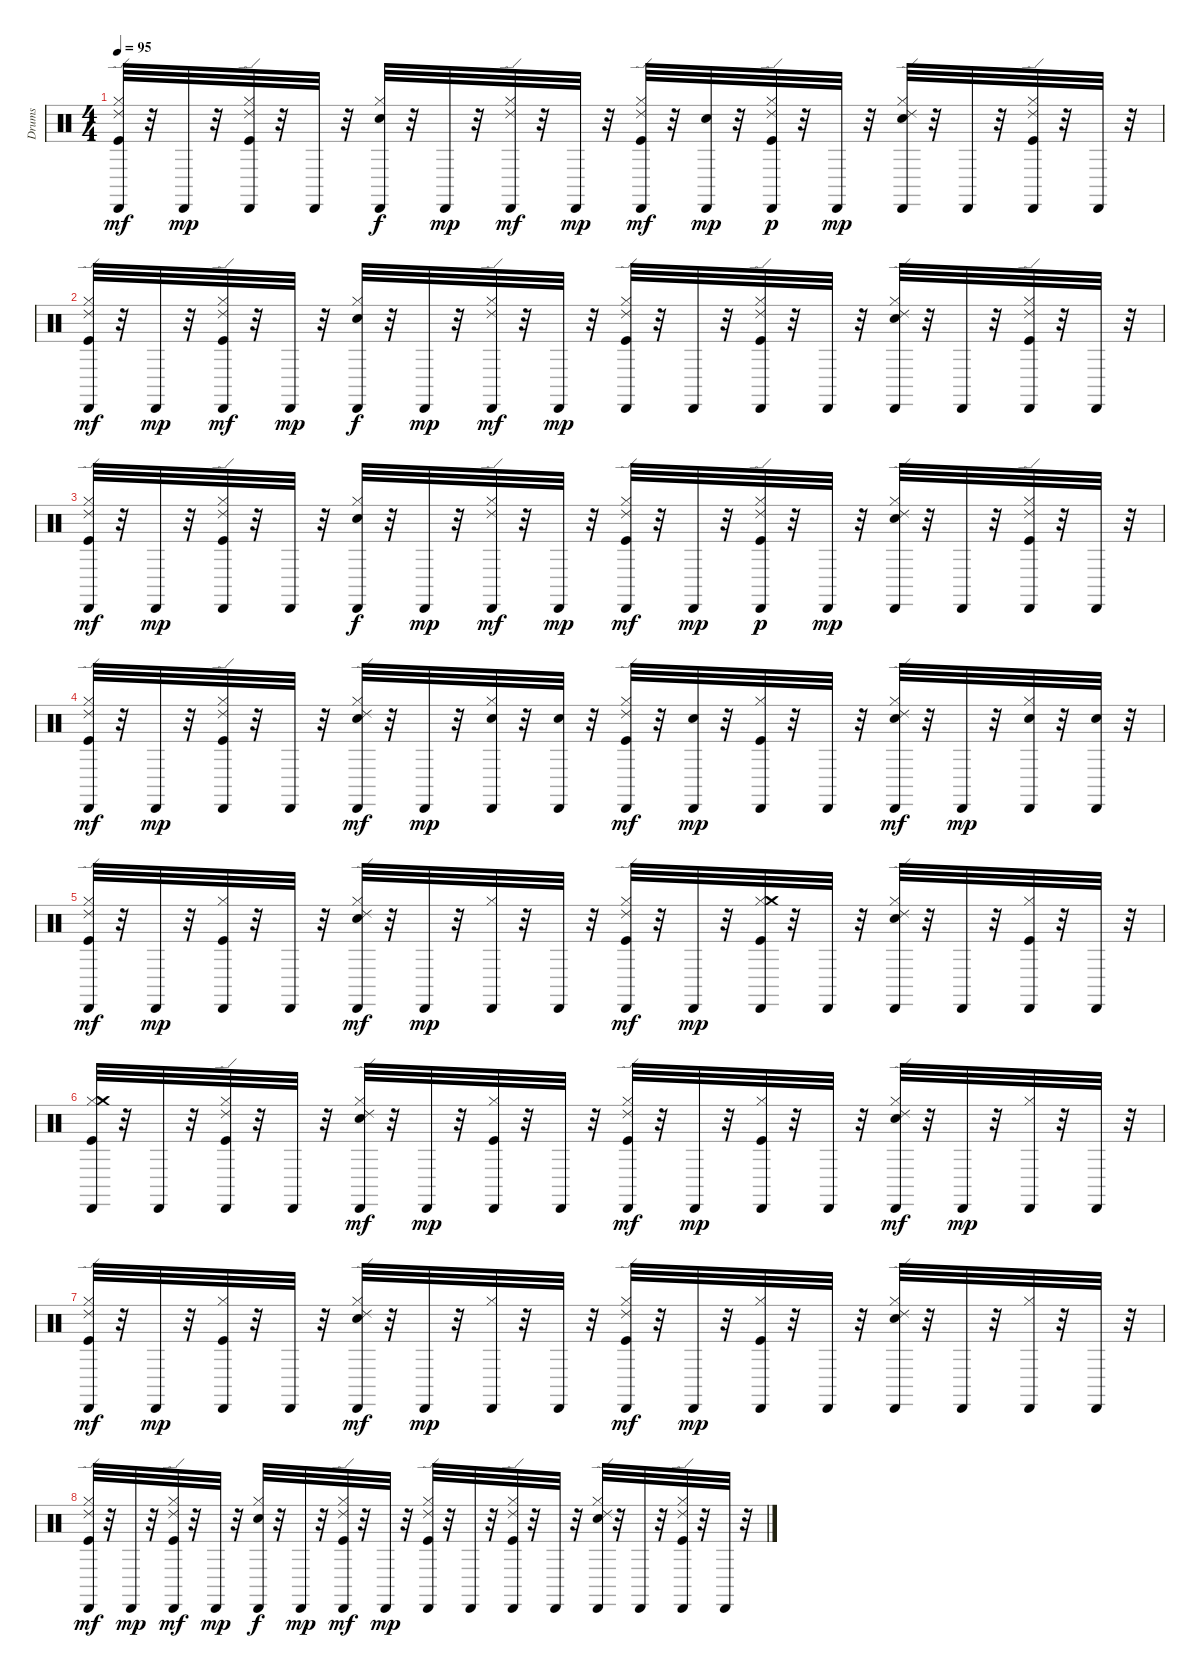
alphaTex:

\track ("Drums" "Drums") {instrument percussion}
\staff {score}
\articulation defaults
\ts (4 4)
\tempo 95
\clef neutral
\ks c
("Hi-Hat (closed)" "Kick (hit)" "Cabasa (hit)" "Ride (edge) 2").32{dy mf} r.32 "Cabasa (hit)".32{dy mp} r.32 ("Hi-Hat (closed)" "Kick (hit)" "Cabasa (hit)" "Ride (edge) 2").32 r.32 "Cabasa (hit)".32 r.32 ("Hi-Hat (closed)" "Electric Snare (hit)" "Cabasa (hit)").32{dy f} r.32 "Cabasa (hit)".32{dy mp} r.32 ("Hi-Hat (closed)" "Cabasa (hit)" "Ride (edge) 2").32{dy mf} r.32 "Cabasa (hit)".32{dy mp} r.32 ("Hi-Hat (closed)" "Kick (hit)" "Cabasa (hit)" "Ride (edge) 2").32{dy mf} r.32 ("Electric Snare (hit)" "Cabasa (hit)").32{dy mp} r.32 ("Hi-Hat (closed)" "Kick (hit)" "Cabasa (hit)" "Ride (edge) 2").32{dy p} r.32 "Cabasa (hit)".32{dy mp} r.32 ("Hi-Hat (closed)" "Electric Snare (hit)" "Cabasa (hit)" "Ride (edge) 2").32 r.32 "Cabasa (hit)".32 r.32 ("Hi-Hat (closed)" "Kick (hit)" "Cabasa (hit)" "Ride (edge) 2").32 r.32 "Cabasa (hit)".32 r.32 |
("Kick (hit)" "Hi-Hat (closed)" "Cabasa (hit)" "Ride (edge) 2").32{dy mf} r.32 "Cabasa (hit)".32{dy mp} r.32 ("Hi-Hat (closed)" "Kick (hit)" "Cabasa (hit)" "Ride (edge) 2").32{dy mf} r.32 "Cabasa (hit)".32{dy mp} r.32 ("Hi-Hat (closed)" "Electric Snare (hit)" "Cabasa (hit)").32{dy f} r.32 "Cabasa (hit)".32{dy mp} r.32 ("Hi-Hat (closed)" "Cabasa (hit)" "Ride (edge) 2").32{dy mf} r.32 "Cabasa (hit)".32{dy mp} r.32 ("Hi-Hat (closed)" "Kick (hit)" "Cabasa (hit)" "Ride (edge) 2").32 r.32 "Cabasa (hit)".32 r.32 ("Hi-Hat (closed)" "Kick (hit)" "Cabasa (hit)" "Ride (edge) 2").32 r.32 "Cabasa (hit)".32 r.32 ("Hi-Hat (closed)" "Electric Snare (hit)" "Cabasa (hit)" "Ride (edge) 2").32 r.32 "Cabasa (hit)".32 r.32 ("Hi-Hat (closed)" "Kick (hit)" "Cabasa (hit)" "Ride (edge) 2").32 r.32 "Cabasa (hit)".32 r.32 |
("Hi-Hat (closed)" "Kick (hit)" "Cabasa (hit)" "Ride (edge) 2").32{dy mf} r.32 "Cabasa (hit)".32{dy mp} r.32 ("Hi-Hat (closed)" "Kick (hit)" "Cabasa (hit)" "Ride (edge) 2").32 r.32 "Cabasa (hit)".32 r.32 ("Hi-Hat (closed)" "Electric Snare (hit)" "Cabasa (hit)").32{dy f} r.32 "Cabasa (hit)".32{dy mp} r.32 ("Hi-Hat (closed)" "Cabasa (hit)" "Ride (edge) 2").32{dy mf} r.32 "Cabasa (hit)".32{dy mp} r.32 ("Hi-Hat (closed)" "Kick (hit)" "Cabasa (hit)" "Ride (edge) 2").32{dy mf} r.32 "Cabasa (hit)".32{dy mp} r.32 ("Hi-Hat (closed)" "Kick (hit)" "Cabasa (hit)" "Ride (edge) 2").32{dy p} r.32 "Cabasa (hit)".32{dy mp} r.32 ("Hi-Hat (closed)" "Electric Snare (hit)" "Cabasa (hit)" "Ride (edge) 2").32 r.32 "Cabasa (hit)".32 r.32 ("Hi-Hat (closed)" "Kick (hit)" "Cabasa (hit)" "Ride (edge) 2").32 r.32 "Cabasa (hit)".32 r.32 |
("Kick (hit)" "Hi-Hat (closed)" "Ride (edge) 2" "Cabasa (hit)").32{dy mf} r.32 "Cabasa (hit)".32{dy mp} r.32 ("Hi-Hat (closed)" "Kick (hit)" "Cabasa (hit)" "Ride (edge) 2").32 r.32 "Cabasa (hit)".32 r.32 ("Hi-Hat (closed)" "Electric Snare (hit)" "Cabasa (hit)" "Ride (edge) 2").32{dy mf} r.32 "Cabasa (hit)".32{dy mp} r.32 ("Hi-Hat (closed)" "Electric Snare (hit)" "Cabasa (hit)").32 r.32 ("Electric Snare (hit)" "Cabasa (hit)").32 r.32 ("Hi-Hat (closed)" "Kick (hit)" "Cabasa (hit)" "Ride (edge) 2").32{dy mf} r.32 ("Electric Snare (hit)" "Cabasa (hit)").32{dy mp} r.32 ("Hi-Hat (closed)" "Kick (hit)" "Cabasa (hit)").32 r.32 "Cabasa (hit)".32 r.32 ("Hi-Hat (closed)" "Electric Snare (hit)" "Cabasa (hit)" "Ride (edge) 2").32{dy mf} r.32 "Cabasa (hit)".32{dy mp} r.32 ("Hi-Hat (closed)" "Electric Snare (hit)" "Cabasa (hit)").32 r.32 ("Electric Snare (hit)" "Cabasa (hit)").32 r.32 |
("Hi-Hat (closed)" "Kick (hit)" "Cabasa (hit)" "Ride (edge) 2").32{dy mf} r.32 "Cabasa (hit)".32{dy mp} r.32 ("Hi-Hat (closed)" "Kick (hit)" "Cabasa (hit)").32 r.32 "Cabasa (hit)".32 r.32 ("Hi-Hat (closed)" "Electric Snare (hit)" "Cabasa (hit)" "Ride (edge) 2").32{dy mf} r.32 "Cabasa (hit)".32{dy mp} r.32 ("Hi-Hat (closed)" "Cabasa (hit)").32 r.32 "Cabasa (hit)".32 r.32 ("Hi-Hat (closed)" "Kick (hit)" "Cabasa (hit)" "Ride (edge) 2").32{dy mf} r.32 "Cabasa (hit)".32{dy mp} r.32 ("Hi-Hat (closed)" "Kick (hit)" "Crash medium (hit)" "Cabasa (hit)").32 r.32 "Cabasa (hit)".32 r.32 ("Hi-Hat (closed)" "Electric Snare (hit)" "Cabasa (hit)" "Ride (edge) 2").32 r.32 "Cabasa (hit)".32 r.32 ("Hi-Hat (closed)" "Kick (hit)" "Cabasa (hit)").32 r.32 "Cabasa (hit)".32 r.32 |
("Kick (hit)" "Hi-Hat (closed)" "Crash medium (hit)" "Cabasa (hit)").32 r.32 "Cabasa (hit)".32 r.32 ("Hi-Hat (closed)" "Kick (hit)" "Cabasa (hit)" "Ride (edge) 2").32 r.32 "Cabasa (hit)".32 r.32 ("Hi-Hat (closed)" "Electric Snare (hit)" "Cabasa (hit)" "Ride (edge) 2").32{dy mf} r.32 "Cabasa (hit)".32{dy mp} r.32 ("Hi-Hat (closed)" "Kick (hit)" "Cabasa (hit)").32 r.32 "Cabasa (hit)".32 r.32 ("Hi-Hat (closed)" "Kick (hit)" "Cabasa (hit)" "Ride (edge) 2").32{dy mf} r.32 "Cabasa (hit)".32{dy mp} r.32 ("Hi-Hat (closed)" "Kick (hit)" "Cabasa (hit)").32 r.32 "Cabasa (hit)".32 r.32 ("Hi-Hat (closed)" "Electric Snare (hit)" "Cabasa (hit)" "Ride (edge) 2").32{dy mf} r.32 "Cabasa (hit)".32{dy mp} r.32 ("Hi-Hat (closed)" "Cabasa (hit)").32 r.32 "Cabasa (hit)".32 r.32 |
("Hi-Hat (closed)" "Kick (hit)" "Cabasa (hit)" "Ride (edge) 2").32{dy mf} r.32 "Cabasa (hit)".32{dy mp} r.32 ("Hi-Hat (closed)" "Kick (hit)" "Cabasa (hit)").32 r.32 "Cabasa (hit)".32 r.32 ("Hi-Hat (closed)" "Electric Snare (hit)" "Cabasa (hit)" "Ride (edge) 2").32{dy mf} r.32 "Cabasa (hit)".32{dy mp} r.32 ("Hi-Hat (closed)" "Cabasa (hit)").32 r.32 "Cabasa (hit)".32 r.32 ("Hi-Hat (closed)" "Kick (hit)" "Cabasa (hit)" "Ride (edge) 2").32{dy mf} r.32 "Cabasa (hit)".32{dy mp} r.32 ("Hi-Hat (closed)" "Kick (hit)" "Cabasa (hit)").32 r.32 "Cabasa (hit)".32 r.32 ("Hi-Hat (closed)" "Electric Snare (hit)" "Cabasa (hit)" "Ride (edge) 2").32 r.32 "Cabasa (hit)".32 r.32 ("Hi-Hat (closed)" "Cabasa (hit)").32 r.32 "Cabasa (hit)".32 r.32 |
("Kick (hit)" "Hi-Hat (closed)" "Cabasa (hit)" "Ride (edge) 2").32{dy mf} r.32 "Cabasa (hit)".32{dy mp} r.32 ("Hi-Hat (closed)" "Kick (hit)" "Cabasa (hit)" "Ride (edge) 2").32{dy mf} r.32 "Cabasa (hit)".32{dy mp} r.32 ("Hi-Hat (closed)" "Electric Snare (hit)" "Cabasa (hit)").32{dy f} r.32 "Cabasa (hit)".32{dy mp} r.32 ("Hi-Hat (closed)" "Kick (hit)" "Cabasa (hit)" "Ride (edge) 2").32{dy mf} r.32 "Cabasa (hit)".32{dy mp} r.32 ("Hi-Hat (closed)" "Kick (hit)" "Cabasa (hit)" "Ride (edge) 2").32 r.32 "Cabasa (hit)".32 r.32 ("Hi-Hat (closed)" "Kick (hit)" "Cabasa (hit)" "Ride (edge) 2").32 r.32 "Cabasa (hit)".32 r.32 ("Hi-Hat (closed)" "Electric Snare (hit)" "Cabasa (hit)" "Ride (edge) 2").32 r.32 "Cabasa (hit)".32 r.32 ("Hi-Hat (closed)" "Cabasa (hit)" "Kick (hit)" "Ride (edge) 2").32 r.32 "Cabasa (hit)".32 r.32
